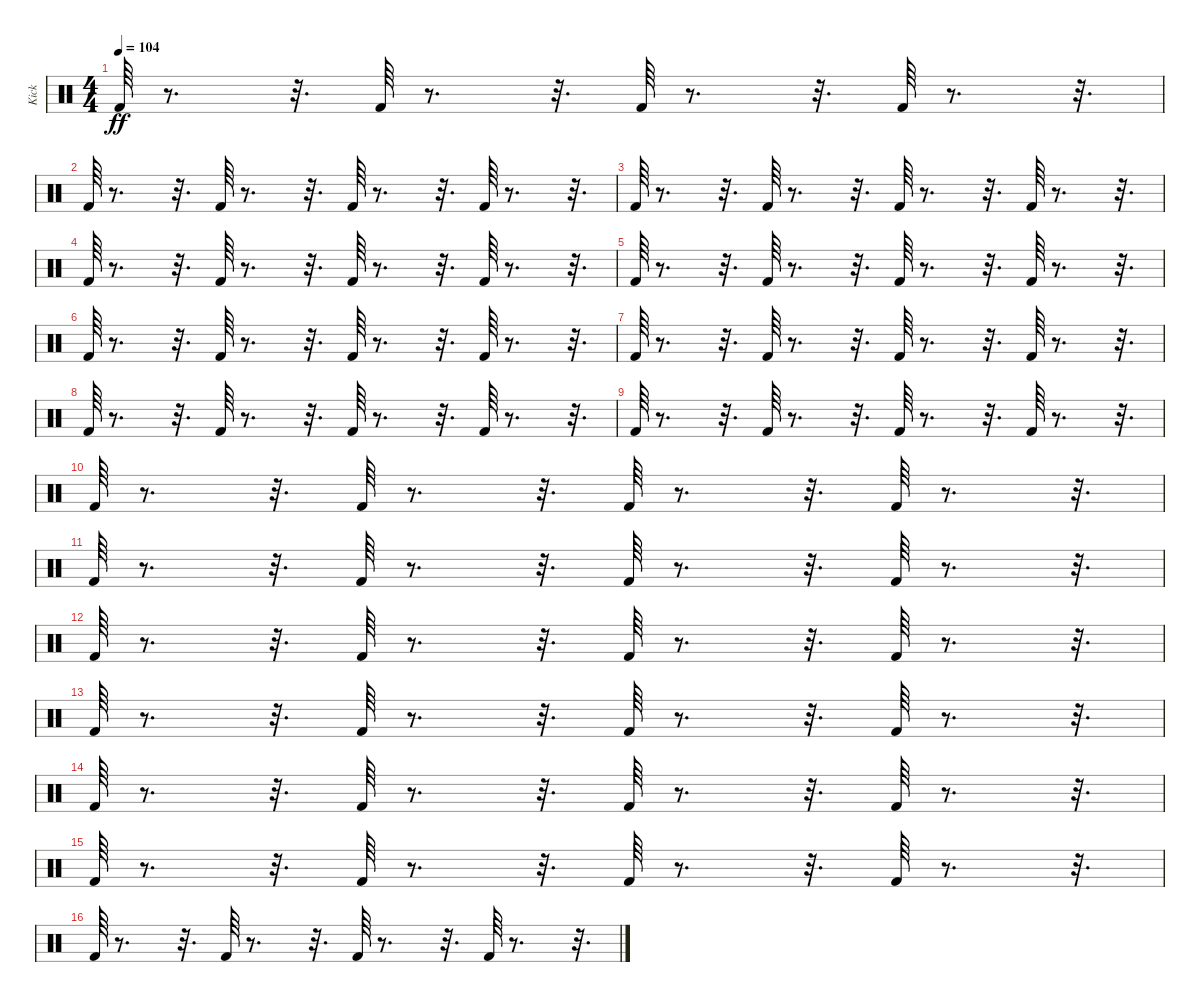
\track ("Kick" "Kick") {instrument percussion}
\staff {score}
\articulation defaults
\ts (4 4)
\tempo 104
\clef neutral
\ks c "Kick (hit) 2".64{dy ff}
r.8{d} r.32{d} "Kick (hit) 2".64 r.8{d} r.32{d} "Kick (hit) 2".64 r.8{d} r.32{d} "Kick (hit) 2".64 r.8{d} r.32{d} |
"Kick (hit) 2".64 r.8{d} r.32{d} "Kick (hit) 2".64 r.8{d} r.32{d} "Kick (hit) 2".64 r.8{d} r.32{d} "Kick (hit) 2".64 r.8{d} r.32{d} |
"Kick (hit) 2".64 r.8{d} r.32{d} "Kick (hit) 2".64 r.8{d} r.32{d} "Kick (hit) 2".64 r.8{d} r.32{d} "Kick (hit) 2".64 r.8{d} r.32{d} |
"Kick (hit) 2".64 r.8{d} r.32{d} "Kick (hit) 2".64 r.8{d} r.32{d} "Kick (hit) 2".64 r.8{d} r.32{d} "Kick (hit) 2".64 r.8{d} r.32{d} |
"Kick (hit) 2".64 r.8{d} r.32{d} "Kick (hit) 2".64 r.8{d} r.32{d} "Kick (hit) 2".64 r.8{d} r.32{d} "Kick (hit) 2".64 r.8{d} r.32{d} |
"Kick (hit) 2".64 r.8{d} r.32{d} "Kick (hit) 2".64 r.8{d} r.32{d} "Kick (hit) 2".64 r.8{d} r.32{d} "Kick (hit) 2".64 r.8{d} r.32{d} |
"Kick (hit) 2".64 r.8{d} r.32{d} "Kick (hit) 2".64 r.8{d} r.32{d} "Kick (hit) 2".64 r.8{d} r.32{d} "Kick (hit) 2".64 r.8{d} r.32{d} |
"Kick (hit) 2".64 r.8{d} r.32{d} "Kick (hit) 2".64 r.8{d} r.32{d} "Kick (hit) 2".64 r.8{d} r.32{d} "Kick (hit) 2".64 r.8{d} r.32{d} |
"Kick (hit) 2".64 r.8{d} r.32{d} "Kick (hit) 2".64 r.8{d} r.32{d} "Kick (hit) 2".64 r.8{d} r.32{d} "Kick (hit) 2".64 r.8{d} r.32{d} |
"Kick (hit) 2".64 r.8{d} r.32{d} "Kick (hit) 2".64 r.8{d} r.32{d} "Kick (hit) 2".64 r.8{d} r.32{d} "Kick (hit) 2".64 r.8{d} r.32{d} |
"Kick (hit) 2".64 r.8{d} r.32{d} "Kick (hit) 2".64 r.8{d} r.32{d} "Kick (hit) 2".64 r.8{d} r.32{d} "Kick (hit) 2".64 r.8{d} r.32{d} |
"Kick (hit) 2".64 r.8{d} r.32{d} "Kick (hit) 2".64 r.8{d} r.32{d} "Kick (hit) 2".64 r.8{d} r.32{d} "Kick (hit) 2".64 r.8{d} r.32{d} |
"Kick (hit) 2".64 r.8{d} r.32{d} "Kick (hit) 2".64 r.8{d} r.32{d} "Kick (hit) 2".64 r.8{d} r.32{d} "Kick (hit) 2".64 r.8{d} r.32{d} |
"Kick (hit) 2".64 r.8{d} r.32{d} "Kick (hit) 2".64 r.8{d} r.32{d} "Kick (hit) 2".64 r.8{d} r.32{d} "Kick (hit) 2".64 r.8{d} r.32{d} |
"Kick (hit) 2".64 r.8{d} r.32{d} "Kick (hit) 2".64 r.8{d} r.32{d} "Kick (hit) 2".64 r.8{d} r.32{d} "Kick (hit) 2".64 r.8{d} r.32{d} |
"Kick (hit) 2".64 r.8{d} r.32{d} "Kick (hit) 2".64 r.8{d} r.32{d} "Kick (hit) 2".64 r.8{d} r.32{d} "Kick (hit) 2".64 r.8{d} r.32{d}
